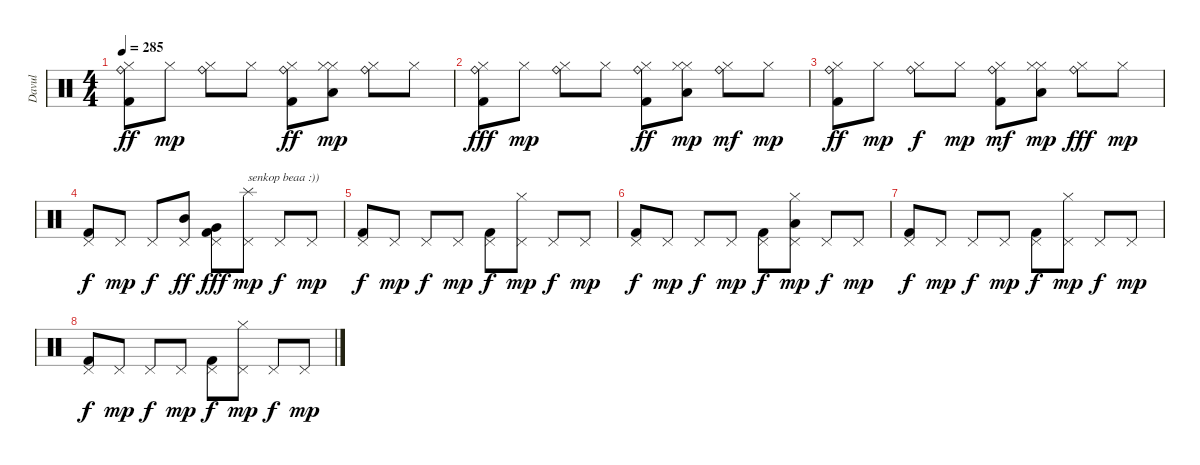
\track ("Davul" "Davul") {instrument percussion}
\staff {score}
\articulation defaults
\ts (4 4)
\tempo 285
\clef neutral
\ks c
("Hi-Hat (closed)" "Ride (bell)" "Kick (hit) 2").8{dy ff} "Hi-Hat (closed)".8{dy mp} ("Hi-Hat (closed)" "Ride (bell)").8 "Hi-Hat (closed)".8 ("Hi-Hat (closed)" "Ride (bell)" "Kick (hit) 2").8{dy ff} ("Hi-Hat (closed)" "Hi-Hat (closed)" "Low Floor Tom (hit)").8{dy mp} ("Hi-Hat (closed)" "Ride (bell)").8 "Hi-Hat (closed)".8 |
("Hi-Hat (closed)" "Ride (bell)" "Kick (hit) 2").8{dy fff} "Hi-Hat (closed)".8{dy mp} ("Hi-Hat (closed)" "Ride (bell)").8 "Hi-Hat (closed)".8 ("Hi-Hat (closed)" "Ride (bell)" "Kick (hit) 2").8{dy ff} ("Hi-Hat (closed)" "Hi-Hat (closed)" "Low Floor Tom (hit)").8{dy mp} ("Hi-Hat (closed)" "Ride (bell)").8{dy mf} "Hi-Hat (closed)".8{dy mp} |
("Hi-Hat (closed)" "Ride (bell)" "Kick (hit) 2").8{dy ff} "Hi-Hat (closed)".8{dy mp} ("Hi-Hat (closed)" "Ride (bell)").8{dy f} "Hi-Hat (closed)".8{dy mp} ("Hi-Hat (closed)" "Ride (bell)" "Kick (hit) 2").8{dy mf} ("Hi-Hat (closed)" "Hi-Hat (closed)" "Low Floor Tom (hit)").8{dy mp} ("Hi-Hat (closed)" "Ride (bell)").8{dy fff} "Hi-Hat (closed)".8{dy mp} |
("Pedal Hi-Hat (hit)" "Kick (hit) 2").8{dy f} "Pedal Hi-Hat (hit)".8{dy mp} "Pedal Hi-Hat (hit)".8{dy f} ("Pedal Hi-Hat (hit)" "Mid Tom (hit)").8{dy ff} ("Pedal Hi-Hat (hit)" "Very Low Tom (hit)" "Kick (hit) 2").8{dy fff} ("Pedal Hi-Hat (hit)" "Splash (hit)").8{txt "senkop beaa :))" dy mp} "Pedal Hi-Hat (hit)".8{dy f} "Pedal Hi-Hat (hit)".8{dy mp} |
("Pedal Hi-Hat (hit)" "Kick (hit) 2").8{dy f} "Pedal Hi-Hat (hit)".8{dy mp} "Pedal Hi-Hat (hit)".8{dy f} "Pedal Hi-Hat (hit)".8{dy mp} ("Pedal Hi-Hat (hit)" "Kick (hit) 2").8{dy f} ("Pedal Hi-Hat (hit)" "Hi-Hat (closed)").8{dy mp} "Pedal Hi-Hat (hit)".8{dy f} "Pedal Hi-Hat (hit)".8{dy mp} |
("Pedal Hi-Hat (hit)" "Kick (hit) 2").8{dy f} "Pedal Hi-Hat (hit)".8{dy mp} "Pedal Hi-Hat (hit)".8{dy f} "Pedal Hi-Hat (hit)".8{dy mp} ("Pedal Hi-Hat (hit)" "Kick (hit) 2").8{dy f} ("Pedal Hi-Hat (hit)" "Hi-Hat (closed)" "Low Floor Tom (hit)").8{dy mp} "Pedal Hi-Hat (hit)".8{dy f} "Pedal Hi-Hat (hit)".8{dy mp} |
("Pedal Hi-Hat (hit)" "Kick (hit) 2").8{dy f} "Pedal Hi-Hat (hit)".8{dy mp} "Pedal Hi-Hat (hit)".8{dy f} "Pedal Hi-Hat (hit)".8{dy mp} ("Pedal Hi-Hat (hit)" "Kick (hit) 2").8{dy f} ("Pedal Hi-Hat (hit)" "Hi-Hat (closed)").8{dy mp} "Pedal Hi-Hat (hit)".8{dy f} "Pedal Hi-Hat (hit)".8{dy mp} |
("Pedal Hi-Hat (hit)" "Kick (hit) 2").8{dy f} "Pedal Hi-Hat (hit)".8{dy mp} "Pedal Hi-Hat (hit)".8{dy f} "Pedal Hi-Hat (hit)".8{dy mp} ("Pedal Hi-Hat (hit)" "Kick (hit) 2").8{dy f} ("Pedal Hi-Hat (hit)" "Hi-Hat (closed)").8{dy mp} "Pedal Hi-Hat (hit)".8{dy f} "Pedal Hi-Hat (hit)".8{dy mp}
